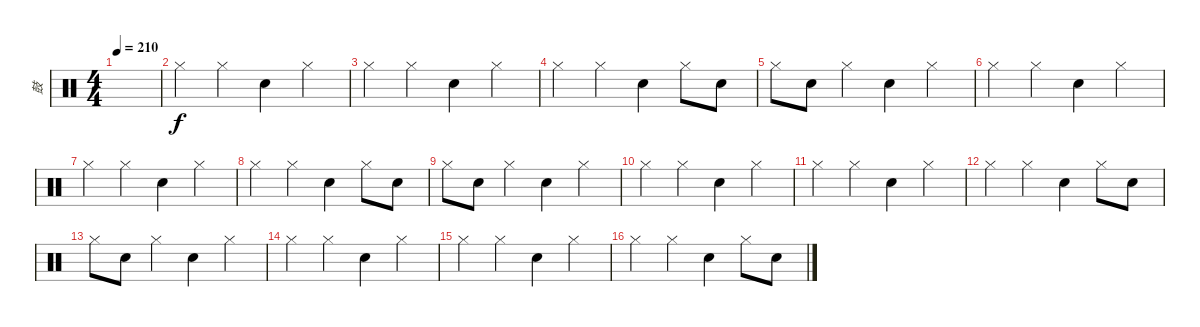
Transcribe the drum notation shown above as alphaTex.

\track ("鼓" "鼓") {instrument percussion}
\staff {score}
\articulation defaults
\ts (4 4)
\tempo 210
\clef neutral
\ks c
|
"Hi-Hat (closed)".4 "Hi-Hat (closed)".4 "Electric Snare (hit)".4 "Hi-Hat (closed)".4 |
"Hi-Hat (closed)".4 "Hi-Hat (closed)".4 "Electric Snare (hit)".4 "Hi-Hat (closed)".4 |
"Hi-Hat (closed)".4 "Hi-Hat (closed)".4 "Electric Snare (hit)".4 "Hi-Hat (closed)".8 "Electric Snare (hit)".8 |
"Hi-Hat (closed)".8 "Electric Snare (hit)".8 "Hi-Hat (closed)".4 "Electric Snare (hit)".4 "Hi-Hat (closed)".4 |
"Hi-Hat (closed)".4 "Hi-Hat (closed)".4 "Electric Snare (hit)".4 "Hi-Hat (closed)".4 |
"Hi-Hat (closed)".4 "Hi-Hat (closed)".4 "Electric Snare (hit)".4 "Hi-Hat (closed)".4 |
"Hi-Hat (closed)".4 "Hi-Hat (closed)".4 "Electric Snare (hit)".4 "Hi-Hat (closed)".8 "Electric Snare (hit)".8 |
"Hi-Hat (closed)".8 "Electric Snare (hit)".8 "Hi-Hat (closed)".4 "Electric Snare (hit)".4 "Hi-Hat (closed)".4 |
"Hi-Hat (closed)".4 "Hi-Hat (closed)".4 "Electric Snare (hit)".4 "Hi-Hat (closed)".4 |
"Hi-Hat (closed)".4 "Hi-Hat (closed)".4 "Electric Snare (hit)".4 "Hi-Hat (closed)".4 |
"Hi-Hat (closed)".4 "Hi-Hat (closed)".4 "Electric Snare (hit)".4 "Hi-Hat (closed)".8 "Electric Snare (hit)".8 |
"Hi-Hat (closed)".8 "Electric Snare (hit)".8 "Hi-Hat (closed)".4 "Electric Snare (hit)".4 "Hi-Hat (closed)".4 |
"Hi-Hat (closed)".4 "Hi-Hat (closed)".4 "Electric Snare (hit)".4 "Hi-Hat (closed)".4 |
"Hi-Hat (closed)".4 "Hi-Hat (closed)".4 "Electric Snare (hit)".4 "Hi-Hat (closed)".4 |
"Hi-Hat (closed)".4 "Hi-Hat (closed)".4 "Electric Snare (hit)".4 "Hi-Hat (closed)".8 "Electric Snare (hit)".8
